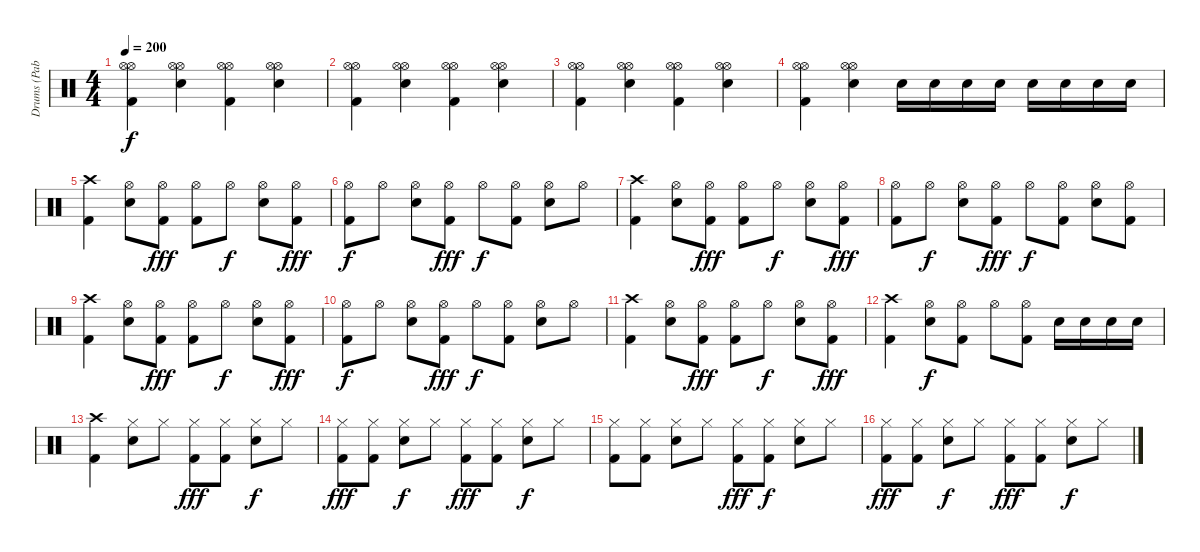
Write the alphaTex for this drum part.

\track ("Drums (Pablo)" "Drums (Pab") {instrument percussion}
\staff {score}
\articulation defaults
\ts (4 4)
\tempo 200
\clef neutral
\ks c
("Hi-Hat (open)" "Hi-Hat (open)" "Kick (hit) 2").4{dy f} ("Hi-Hat (open)" "Hi-Hat (open)" "Electric Snare (hit)").4 ("Hi-Hat (open)" "Hi-Hat (open)" "Kick (hit) 2").4 ("Hi-Hat (open)" "Hi-Hat (open)" "Electric Snare (hit)").4 |
("Hi-Hat (open)" "Hi-Hat (open)" "Kick (hit) 2").4 ("Hi-Hat (open)" "Hi-Hat (open)" "Electric Snare (hit)").4 ("Hi-Hat (open)" "Hi-Hat (open)" "Kick (hit) 2").4 ("Hi-Hat (open)" "Hi-Hat (open)" "Electric Snare (hit)").4 |
("Hi-Hat (open)" "Hi-Hat (open)" "Kick (hit) 2").4 ("Hi-Hat (open)" "Hi-Hat (open)" "Electric Snare (hit)").4 ("Hi-Hat (open)" "Hi-Hat (open)" "Kick (hit) 2").4 ("Hi-Hat (open)" "Hi-Hat (open)" "Electric Snare (hit)").4 |
("Hi-Hat (open)" "Hi-Hat (open)" "Kick (hit) 2").4 ("Hi-Hat (open)" "Hi-Hat (open)" "Electric Snare (hit)").4 "Electric Snare (hit)".16 "Electric Snare (hit)".16 "Electric Snare (hit)".16 "Electric Snare (hit)".16 "Electric Snare (hit)".16 "Electric Snare (hit)".16 "Electric Snare (hit)".16 "Electric Snare (hit)".16 |
("Crash high (hit)" "Kick (hit) 2").4 ("Hi-Hat (open)" "Electric Snare (hit)").8 ("Hi-Hat (open)" "Kick (hit) 2").8{dy fff} ("Hi-Hat (open)" "Kick (hit) 2").8 "Hi-Hat (open)".8{dy f} ("Hi-Hat (open)" "Electric Snare (hit)").8 ("Hi-Hat (open)" "Kick (hit) 2").8{dy fff} |
("Hi-Hat (open)" "Kick (hit) 2").8{dy f} "Hi-Hat (open)".8 ("Hi-Hat (open)" "Electric Snare (hit)").8 ("Hi-Hat (open)" "Kick (hit) 2").8{dy fff} "Hi-Hat (open)".8{dy f} ("Hi-Hat (open)" "Kick (hit) 2").8 ("Hi-Hat (open)" "Electric Snare (hit)").8 "Hi-Hat (open)".8 |
("Crash high (hit)" "Kick (hit) 2").4 ("Hi-Hat (open)" "Electric Snare (hit)").8 ("Hi-Hat (open)" "Kick (hit) 2").8{dy fff} ("Hi-Hat (open)" "Kick (hit) 2").8 "Hi-Hat (open)".8{dy f} ("Hi-Hat (open)" "Electric Snare (hit)").8 ("Hi-Hat (open)" "Kick (hit) 2").8{dy fff} |
("Hi-Hat (open)" "Kick (hit) 2").8 "Hi-Hat (open)".8{dy f} ("Hi-Hat (open)" "Electric Snare (hit)").8 ("Hi-Hat (open)" "Kick (hit) 2").8{dy fff} "Hi-Hat (open)".8{dy f} ("Hi-Hat (open)" "Kick (hit) 2").8 ("Hi-Hat (open)" "Electric Snare (hit)").8 ("Hi-Hat (open)" "Kick (hit) 2").8 |
("Crash high (hit)" "Kick (hit) 2").4 ("Hi-Hat (open)" "Electric Snare (hit)").8 ("Hi-Hat (open)" "Kick (hit) 2").8{dy fff} ("Hi-Hat (open)" "Kick (hit) 2").8 "Hi-Hat (open)".8{dy f} ("Hi-Hat (open)" "Electric Snare (hit)").8 ("Hi-Hat (open)" "Kick (hit) 2").8{dy fff} |
("Hi-Hat (open)" "Kick (hit) 2").8{dy f} "Hi-Hat (open)".8 ("Hi-Hat (open)" "Electric Snare (hit)").8 ("Hi-Hat (open)" "Kick (hit) 2").8{dy fff} "Hi-Hat (open)".8{dy f} ("Hi-Hat (open)" "Kick (hit) 2").8 ("Hi-Hat (open)" "Electric Snare (hit)").8 "Hi-Hat (open)".8 |
("Crash high (hit)" "Kick (hit) 2").4 ("Hi-Hat (open)" "Electric Snare (hit)").8 ("Hi-Hat (open)" "Kick (hit) 2").8{dy fff} ("Hi-Hat (open)" "Kick (hit) 2").8 "Hi-Hat (open)".8{dy f} ("Hi-Hat (open)" "Electric Snare (hit)").8 ("Hi-Hat (open)" "Kick (hit) 2").8{dy fff} |
("Crash high (hit)" "Kick (hit) 2").4 ("Hi-Hat (open)" "Electric Snare (hit)").8{dy f} ("Hi-Hat (open)" "Kick (hit) 2").8 "Hi-Hat (open)".8 ("Hi-Hat (open)" "Kick (hit) 2").8 "Electric Snare (hit)".16 "Electric Snare (hit)".16 "Electric Snare (hit)".16 "Electric Snare (hit)".16 |
("Crash high (hit)" "Kick (hit) 2").4 ("Hi-Hat (closed)" "Electric Snare (hit)").8 "Hi-Hat (closed)".8 ("Hi-Hat (closed)" "Kick (hit) 2").8{dy fff} ("Hi-Hat (closed)" "Kick (hit) 2").8 ("Hi-Hat (closed)" "Electric Snare (hit)").8{dy f} "Hi-Hat (closed)".8 |
("Hi-Hat (closed)" "Kick (hit) 2").8{dy fff} ("Hi-Hat (closed)" "Kick (hit) 2").8 ("Hi-Hat (closed)" "Electric Snare (hit)").8{dy f} "Hi-Hat (closed)".8 ("Hi-Hat (closed)" "Kick (hit) 2").8{dy fff} ("Hi-Hat (closed)" "Kick (hit) 2").8 ("Hi-Hat (closed)" "Electric Snare (hit)").8{dy f} "Hi-Hat (closed)".8 |
("Hi-Hat (closed)" "Kick (hit) 2").8 ("Hi-Hat (closed)" "Kick (hit) 2").8 ("Hi-Hat (closed)" "Electric Snare (hit)").8 "Hi-Hat (closed)".8 ("Hi-Hat (closed)" "Kick (hit) 2").8{dy fff} ("Hi-Hat (closed)" "Kick (hit) 2").8{dy f} ("Hi-Hat (closed)" "Electric Snare (hit)").8 "Hi-Hat (closed)".8 |
("Hi-Hat (closed)" "Kick (hit) 2").8{dy fff} ("Hi-Hat (closed)" "Kick (hit) 2").8 ("Hi-Hat (closed)" "Electric Snare (hit)").8{dy f} "Hi-Hat (closed)".8 ("Hi-Hat (closed)" "Kick (hit) 2").8{dy fff} ("Hi-Hat (closed)" "Kick (hit) 2").8 ("Hi-Hat (closed)" "Electric Snare (hit)").8{dy f} "Hi-Hat (closed)".8
